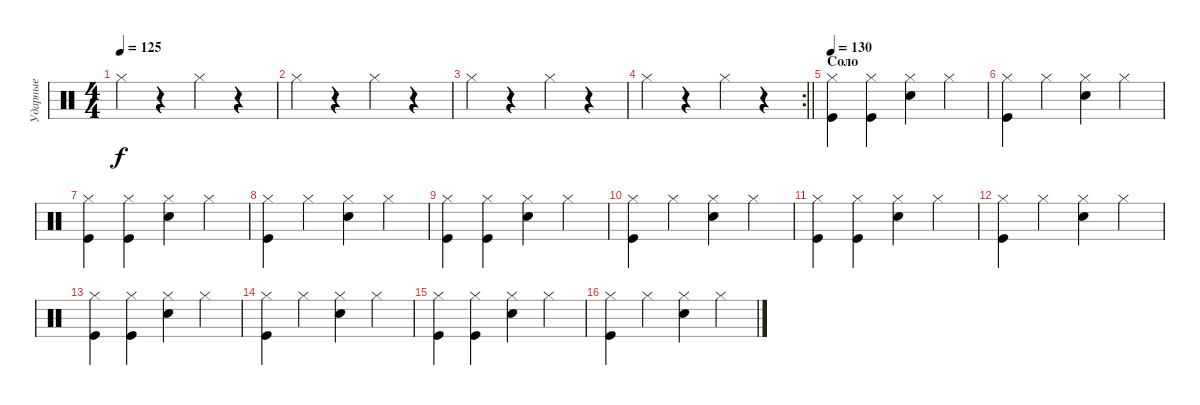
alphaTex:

\track ("Ударные" "Ударные") {instrument percussion}
\staff {score}
\articulation defaults
\ts (4 4)
\tempo 125
\clef neutral
\ks c "Hi-Hat (closed)".4{dy f}
r.4 "Hi-Hat (closed)".4 r.4 |
"Hi-Hat (closed)".4 r.4 "Hi-Hat (closed)".4 r.4 |
"Hi-Hat (closed)".4 r.4 "Hi-Hat (closed)".4 r.4 |
\rc 2
\barLineRight lightlight "Hi-Hat (closed)".4
r.4 "Hi-Hat (closed)".4 r.4 |
\section ("" "Соло")
\tempo 130
("Hi-Hat (closed)" "Kick (hit)").4 ("Hi-Hat (closed)" "Kick (hit)").4 ("Hi-Hat (closed)" "Snare (hit) 2").4 "Hi-Hat (closed)".4 |
("Kick (hit)" "Hi-Hat (closed)").4 "Hi-Hat (closed)".4 ("Hi-Hat (closed)" "Snare (hit) 2").4 "Hi-Hat (closed)".4 |
("Hi-Hat (closed)" "Kick (hit)").4 ("Hi-Hat (closed)" "Kick (hit)").4 ("Hi-Hat (closed)" "Snare (hit) 2").4 "Hi-Hat (closed)".4 |
("Kick (hit)" "Hi-Hat (closed)").4 "Hi-Hat (closed)".4 ("Hi-Hat (closed)" "Snare (hit) 2").4 "Hi-Hat (closed)".4 |
("Hi-Hat (closed)" "Kick (hit)").4 ("Hi-Hat (closed)" "Kick (hit)").4 ("Hi-Hat (closed)" "Snare (hit) 2").4 "Hi-Hat (closed)".4 |
("Kick (hit)" "Hi-Hat (closed)").4 "Hi-Hat (closed)".4 ("Hi-Hat (closed)" "Snare (hit) 2").4 "Hi-Hat (closed)".4 |
("Hi-Hat (closed)" "Kick (hit)").4 ("Hi-Hat (closed)" "Kick (hit)").4 ("Hi-Hat (closed)" "Snare (hit) 2").4 "Hi-Hat (closed)".4 |
("Kick (hit)" "Hi-Hat (closed)").4 "Hi-Hat (closed)".4 ("Hi-Hat (closed)" "Snare (hit) 2").4 "Hi-Hat (closed)".4 |
("Hi-Hat (closed)" "Kick (hit)").4 ("Hi-Hat (closed)" "Kick (hit)").4 ("Hi-Hat (closed)" "Snare (hit) 2").4 "Hi-Hat (closed)".4 |
("Kick (hit)" "Hi-Hat (closed)").4 "Hi-Hat (closed)".4 ("Hi-Hat (closed)" "Snare (hit) 2").4 "Hi-Hat (closed)".4 |
("Hi-Hat (closed)" "Kick (hit)").4 ("Hi-Hat (closed)" "Kick (hit)").4 ("Hi-Hat (closed)" "Snare (hit) 2").4 "Hi-Hat (closed)".4 |
("Kick (hit)" "Hi-Hat (closed)").4 "Hi-Hat (closed)".4 ("Hi-Hat (closed)" "Snare (hit) 2").4 "Hi-Hat (closed)".4
